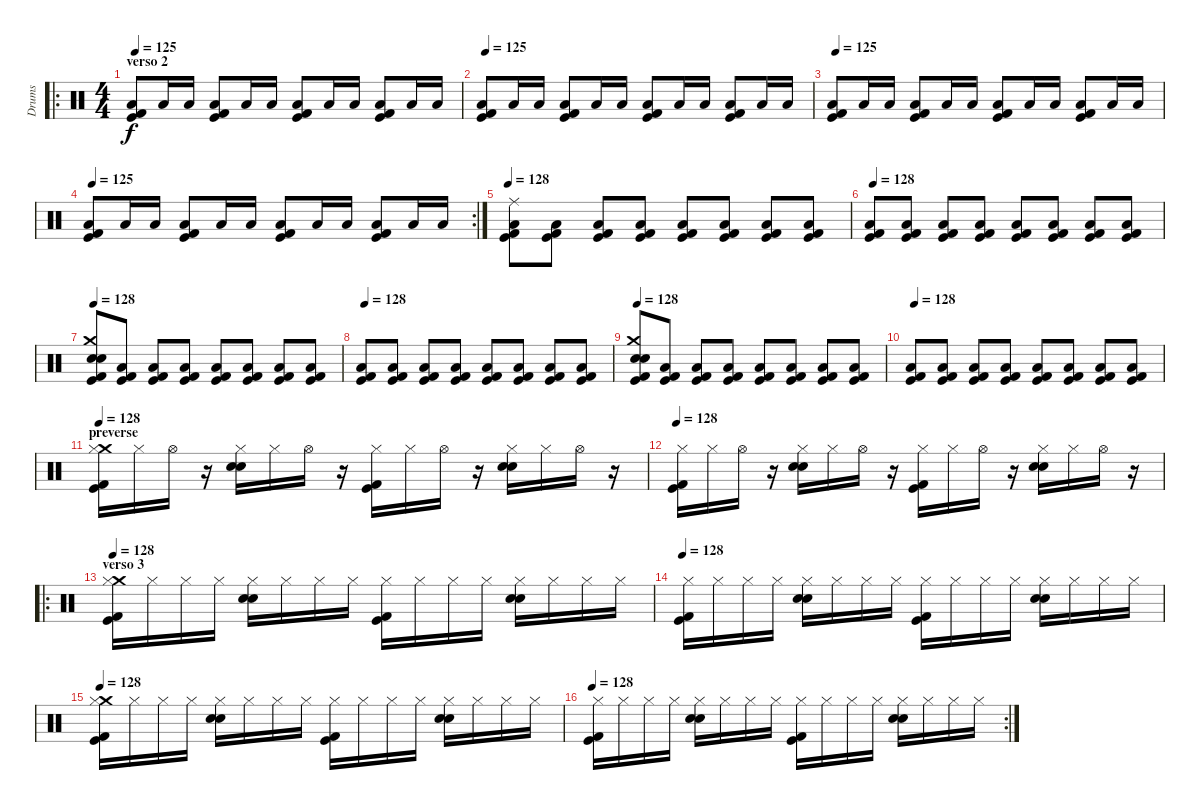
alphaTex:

\track ("Drums" "Drums") {instrument percussion}
\staff {score}
\articulation defaults
\ro
\ts (4 4)
\section ("" "verso 2")
\tempo 125
\clef neutral
\ks c
("Low Tom (hit)" "Kick (hit) 2" "Kick (hit)").8{dy f} "Low Tom (hit)".16 "Low Tom (hit)".16 ("Low Tom (hit)" "Kick (hit) 2" "Kick (hit)").8 "Low Tom (hit)".16 "Low Tom (hit)".16 ("Low Tom (hit)" "Kick (hit) 2" "Kick (hit)").8 "Low Tom (hit)".16 "Low Tom (hit)".16 ("Low Tom (hit)" "Kick (hit) 2" "Kick (hit)").8 "Low Tom (hit)".16 "Low Tom (hit)".16 |
\tempo 125
("Low Tom (hit)" "Kick (hit) 2" "Kick (hit)").8 "Low Tom (hit)".16 "Low Tom (hit)".16 ("Low Tom (hit)" "Kick (hit) 2" "Kick (hit)").8 "Low Tom (hit)".16 "Low Tom (hit)".16 ("Low Tom (hit)" "Kick (hit) 2" "Kick (hit)").8 "Low Tom (hit)".16 "Low Tom (hit)".16 ("Low Tom (hit)" "Kick (hit) 2" "Kick (hit)").8 "Low Tom (hit)".16 "Low Tom (hit)".16 |
\tempo 125
("Low Tom (hit)" "Kick (hit) 2" "Kick (hit)").8 "Low Tom (hit)".16 "Low Tom (hit)".16 ("Low Tom (hit)" "Kick (hit) 2" "Kick (hit)").8 "Low Tom (hit)".16 "Low Tom (hit)".16 ("Low Tom (hit)" "Kick (hit) 2" "Kick (hit)").8 "Low Tom (hit)".16 "Low Tom (hit)".16 ("Low Tom (hit)" "Kick (hit) 2" "Kick (hit)").8 "Low Tom (hit)".16 "Low Tom (hit)".16 |
\rc 2
\tempo 125
("Low Tom (hit)" "Kick (hit) 2" "Kick (hit)").8 "Low Tom (hit)".16 "Low Tom (hit)".16 ("Low Tom (hit)" "Kick (hit) 2" "Kick (hit)").8 "Low Tom (hit)".16 "Low Tom (hit)".16 ("Low Tom (hit)" "Kick (hit) 2" "Kick (hit)").8 "Low Tom (hit)".16 "Low Tom (hit)".16 ("Low Tom (hit)" "Kick (hit) 2" "Kick (hit)").8 "Low Tom (hit)".16 "Low Tom (hit)".16 |
\tempo 128
("Ride (middle)" "Low Tom (hit)" "Kick (hit) 2" "Kick (hit)").8 ("Low Tom (hit)" "Kick (hit) 2" "Kick (hit)").8 ("Low Tom (hit)" "Kick (hit) 2" "Kick (hit)").8 ("Low Tom (hit)" "Kick (hit) 2" "Kick (hit)").8 ("Low Tom (hit)" "Kick (hit) 2" "Kick (hit)").8 ("Low Tom (hit)" "Kick (hit) 2" "Kick (hit)").8 ("Low Tom (hit)" "Kick (hit) 2" "Kick (hit)").8 ("Low Tom (hit)" "Kick (hit) 2" "Kick (hit)").8 |
\tempo 128
("Low Tom (hit)" "Kick (hit) 2" "Kick (hit)").8 ("Low Tom (hit)" "Kick (hit) 2" "Kick (hit)").8 ("Low Tom (hit)" "Kick (hit) 2" "Kick (hit)").8 ("Low Tom (hit)" "Kick (hit) 2" "Kick (hit)").8 ("Low Tom (hit)" "Kick (hit) 2" "Kick (hit)").8 ("Low Tom (hit)" "Kick (hit) 2" "Kick (hit)").8 ("Low Tom (hit)" "Kick (hit) 2" "Kick (hit)").8 ("Low Tom (hit)" "Kick (hit) 2" "Kick (hit)").8 |
\tempo 128
("Crash medium (hit)" "Snare (hit) 2" "Snare (hit) 2" "Kick (hit) 2" "Kick (hit)").8 ("Low Tom (hit)" "Kick (hit) 2" "Kick (hit)").8 ("Low Tom (hit)" "Kick (hit) 2" "Kick (hit)").8 ("Low Tom (hit)" "Kick (hit) 2" "Kick (hit)").8 ("Low Tom (hit)" "Kick (hit) 2" "Kick (hit)").8 ("Low Tom (hit)" "Kick (hit) 2" "Kick (hit)").8 ("Low Tom (hit)" "Kick (hit) 2" "Kick (hit)").8 ("Low Tom (hit)" "Kick (hit) 2" "Kick (hit)").8 |
\tempo 128
("Low Tom (hit)" "Kick (hit) 2" "Kick (hit)").8 ("Low Tom (hit)" "Kick (hit) 2" "Kick (hit)").8 ("Low Tom (hit)" "Kick (hit) 2" "Kick (hit)").8 ("Low Tom (hit)" "Kick (hit) 2" "Kick (hit)").8 ("Low Tom (hit)" "Kick (hit) 2" "Kick (hit)").8 ("Low Tom (hit)" "Kick (hit) 2" "Kick (hit)").8 ("Low Tom (hit)" "Kick (hit) 2" "Kick (hit)").8 ("Low Tom (hit)" "Kick (hit) 2" "Kick (hit)").8 |
\tempo 128
("Crash medium (hit)" "Snare (hit) 2" "Snare (hit) 2" "Kick (hit) 2" "Kick (hit)").8 ("Low Tom (hit)" "Kick (hit) 2" "Kick (hit)").8 ("Low Tom (hit)" "Kick (hit) 2" "Kick (hit)").8 ("Low Tom (hit)" "Kick (hit) 2" "Kick (hit)").8 ("Low Tom (hit)" "Kick (hit) 2" "Kick (hit)").8 ("Low Tom (hit)" "Kick (hit) 2" "Kick (hit)").8 ("Low Tom (hit)" "Kick (hit) 2" "Kick (hit)").8 ("Low Tom (hit)" "Kick (hit) 2" "Kick (hit)").8 |
\tempo 128
("Low Tom (hit)" "Kick (hit) 2" "Kick (hit)").8 ("Low Tom (hit)" "Kick (hit) 2" "Kick (hit)").8 ("Low Tom (hit)" "Kick (hit) 2" "Kick (hit)").8 ("Low Tom (hit)" "Kick (hit) 2" "Kick (hit)").8 ("Low Tom (hit)" "Kick (hit) 2" "Kick (hit)").8 ("Low Tom (hit)" "Kick (hit) 2" "Kick (hit)").8 ("Low Tom (hit)" "Kick (hit) 2" "Kick (hit)").8 ("Low Tom (hit)" "Kick (hit) 2" "Kick (hit)").8 |
\section ("" "preverse")
\tempo 128
("Crash medium (hit)" "Hi-Hat (closed)" "Kick (hit) 2" "Kick (hit)").16 "Hi-Hat (closed)".16 "Hi-Hat (open)".16 r.16 ("Hi-Hat (closed)" "Snare (hit) 2" "Snare (hit) 2").16 "Hi-Hat (closed)".16 "Hi-Hat (open)".16 r.16 ("Hi-Hat (closed)" "Kick (hit) 2" "Kick (hit)").16 "Hi-Hat (closed)".16 "Hi-Hat (open)".16 r.16 ("Hi-Hat (closed)" "Snare (hit) 2" "Snare (hit) 2").16 "Hi-Hat (closed)".16 "Hi-Hat (open)".16 r.16 |
\tempo 128
("Hi-Hat (closed)" "Kick (hit) 2" "Kick (hit)").16 "Hi-Hat (closed)".16 "Hi-Hat (open)".16 r.16 ("Hi-Hat (closed)" "Snare (hit) 2" "Snare (hit) 2").16 "Hi-Hat (closed)".16 "Hi-Hat (open)".16 r.16 ("Hi-Hat (closed)" "Kick (hit) 2" "Kick (hit)").16 "Hi-Hat (closed)".16 "Hi-Hat (open)".16 r.16 ("Hi-Hat (closed)" "Snare (hit) 2" "Snare (hit) 2").16 "Hi-Hat (closed)".16 "Hi-Hat (open)".16 r.16 |
\ro
\section ("" "verso 3")
\tempo 128
("Crash medium (hit)" "Hi-Hat (closed)" "Kick (hit) 2" "Kick (hit)").16 "Hi-Hat (closed)".16 "Hi-Hat (closed)".16 "Hi-Hat (closed)".16 ("Hi-Hat (closed)" "Snare (hit) 2" "Snare (hit) 2").16 "Hi-Hat (closed)".16 "Hi-Hat (closed)".16 "Hi-Hat (closed)".16 ("Hi-Hat (closed)" "Kick (hit) 2" "Kick (hit)").16 "Hi-Hat (closed)".16 "Hi-Hat (closed)".16 "Hi-Hat (closed)".16 ("Hi-Hat (closed)" "Snare (hit) 2" "Snare (hit) 2").16 "Hi-Hat (closed)".16 "Hi-Hat (closed)".16 "Hi-Hat (closed)".16 |
\tempo 128
("Hi-Hat (closed)" "Kick (hit) 2" "Kick (hit)").16 "Hi-Hat (closed)".16 "Hi-Hat (closed)".16 "Hi-Hat (closed)".16 ("Hi-Hat (closed)" "Snare (hit) 2" "Snare (hit) 2").16 "Hi-Hat (closed)".16 "Hi-Hat (closed)".16 "Hi-Hat (closed)".16 ("Hi-Hat (closed)" "Kick (hit) 2" "Kick (hit)").16 "Hi-Hat (closed)".16 "Hi-Hat (closed)".16 "Hi-Hat (closed)".16 ("Hi-Hat (closed)" "Snare (hit) 2" "Snare (hit) 2").16 "Hi-Hat (closed)".16 "Hi-Hat (closed)".16 "Hi-Hat (closed)".16 |
\tempo 128
("Crash medium (hit)" "Hi-Hat (closed)" "Kick (hit) 2" "Kick (hit)").16 "Hi-Hat (closed)".16 "Hi-Hat (closed)".16 "Hi-Hat (closed)".16 ("Hi-Hat (closed)" "Snare (hit) 2" "Snare (hit) 2").16 "Hi-Hat (closed)".16 "Hi-Hat (closed)".16 "Hi-Hat (closed)".16 ("Hi-Hat (closed)" "Kick (hit) 2" "Kick (hit)").16 "Hi-Hat (closed)".16 "Hi-Hat (closed)".16 "Hi-Hat (closed)".16 ("Hi-Hat (closed)" "Snare (hit) 2" "Snare (hit) 2").16 "Hi-Hat (closed)".16 "Hi-Hat (closed)".16 "Hi-Hat (closed)".16 |
\rc 2
\tempo 128
("Hi-Hat (closed)" "Kick (hit) 2" "Kick (hit)").16 "Hi-Hat (closed)".16 "Hi-Hat (closed)".16 "Hi-Hat (closed)".16 ("Hi-Hat (closed)" "Snare (hit) 2" "Snare (hit) 2").16 "Hi-Hat (closed)".16 "Hi-Hat (closed)".16 "Hi-Hat (closed)".16 ("Hi-Hat (closed)" "Kick (hit) 2" "Kick (hit)").16 "Hi-Hat (closed)".16 "Hi-Hat (closed)".16 "Hi-Hat (closed)".16 ("Hi-Hat (closed)" "Snare (hit) 2" "Snare (hit) 2").16 "Hi-Hat (closed)".16 "Hi-Hat (closed)".16 "Hi-Hat (closed)".16
